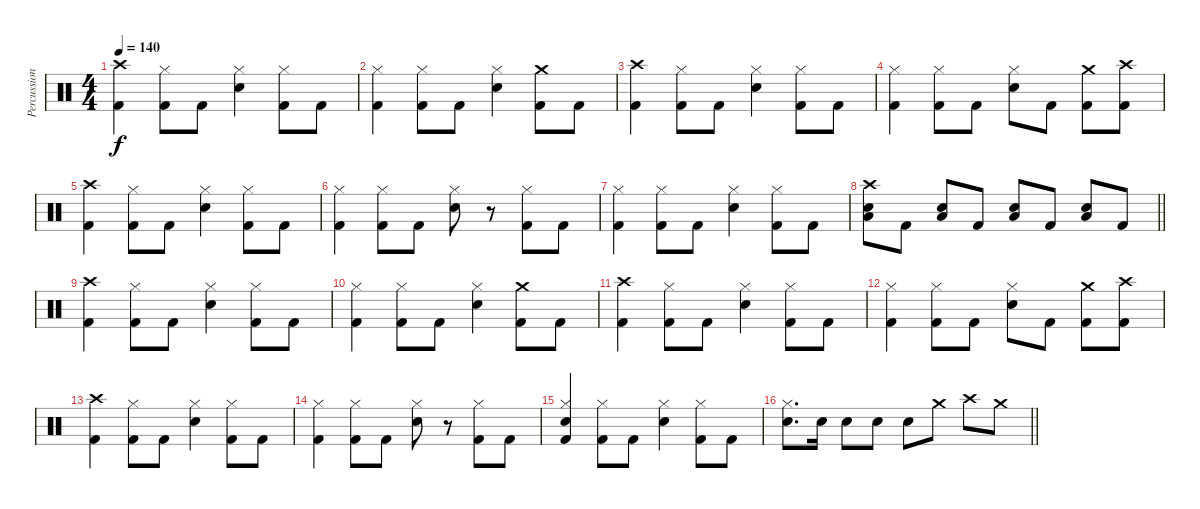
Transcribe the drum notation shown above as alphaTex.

\track ("Percussion (LP III)" "Percussion") {instrument percussion}
\staff {score}
\articulation defaults
\ts (4 4)
\section ("" " ")
\tempo 140
\clef neutral
\ks c
("Crash high (hit)" "Kick (hit) 2").4{dy f} ("Hi-Hat (closed)" "Kick (hit) 2").8 "Kick (hit) 2".8 ("Hi-Hat (closed)" "Snare (hit) 2").4 ("Hi-Hat (closed)" "Kick (hit) 2").8 "Kick (hit) 2".8 |
("Hi-Hat (closed)" "Kick (hit) 2").4 ("Hi-Hat (closed)" "Kick (hit) 2").8 "Kick (hit) 2".8 ("Hi-Hat (closed)" "Snare (hit) 2").4 ("Crash medium (hit)" "Kick (hit) 2").8 "Kick (hit) 2".8 |
("Crash high (hit)" "Kick (hit) 2").4 ("Hi-Hat (closed)" "Kick (hit) 2").8 "Kick (hit) 2".8 ("Hi-Hat (closed)" "Snare (hit) 2").4 ("Hi-Hat (closed)" "Kick (hit) 2").8 "Kick (hit) 2".8 |
("Hi-Hat (closed)" "Kick (hit) 2").4 ("Hi-Hat (closed)" "Kick (hit) 2").8 "Kick (hit) 2".8 ("Hi-Hat (closed)" "Snare (hit) 2").8 "Kick (hit) 2".8 ("Crash medium (hit)" "Kick (hit) 2").8 ("Crash high (hit)" "Kick (hit) 2").8 |
("Crash high (hit)" "Kick (hit) 2").4 ("Hi-Hat (closed)" "Kick (hit) 2").8 "Kick (hit) 2".8 ("Hi-Hat (closed)" "Snare (hit) 2").4 ("Hi-Hat (closed)" "Kick (hit) 2").8 "Kick (hit) 2".8 |
("Hi-Hat (closed)" "Kick (hit) 2").4 ("Hi-Hat (closed)" "Kick (hit) 2").8 "Kick (hit) 2".8 ("Hi-Hat (closed)" "Snare (hit) 2").8 r.8 ("Hi-Hat (closed)" "Kick (hit) 2").8 "Kick (hit) 2".8 |
("Hi-Hat (closed)" "Kick (hit) 2").4 ("Hi-Hat (closed)" "Kick (hit) 2").8 "Kick (hit) 2".8 ("Hi-Hat (closed)" "Snare (hit) 2").4 ("Hi-Hat (closed)" "Kick (hit) 2").8 "Kick (hit) 2".8 |
\barLineRight lightlight
("Crash high (hit)" "Snare (hit) 2" "Low Tom (hit)").8 "Kick (hit) 2".8 ("Snare (hit) 2" "Low Tom (hit)").8 "Kick (hit) 2".8 ("Snare (hit) 2" "Low Tom (hit)").8 "Kick (hit) 2".8 ("Snare (hit) 2" "Low Tom (hit)").8 "Kick (hit) 2".8 |
\section ("" " ")
("Crash high (hit)" "Kick (hit) 2").4 ("Hi-Hat (closed)" "Kick (hit) 2").8 "Kick (hit) 2".8 ("Hi-Hat (closed)" "Snare (hit) 2").4 ("Hi-Hat (closed)" "Kick (hit) 2").8 "Kick (hit) 2".8 |
("Hi-Hat (closed)" "Kick (hit) 2").4 ("Hi-Hat (closed)" "Kick (hit) 2").8 "Kick (hit) 2".8 ("Hi-Hat (closed)" "Snare (hit) 2").4 ("Crash medium (hit)" "Kick (hit) 2").8 "Kick (hit) 2".8 |
("Crash high (hit)" "Kick (hit) 2").4 ("Hi-Hat (closed)" "Kick (hit) 2").8 "Kick (hit) 2".8 ("Hi-Hat (closed)" "Snare (hit) 2").4 ("Hi-Hat (closed)" "Kick (hit) 2").8 "Kick (hit) 2".8 |
("Hi-Hat (closed)" "Kick (hit) 2").4 ("Hi-Hat (closed)" "Kick (hit) 2").8 "Kick (hit) 2".8 ("Hi-Hat (closed)" "Snare (hit) 2").8 "Kick (hit) 2".8 ("Crash medium (hit)" "Kick (hit) 2").8 ("Crash high (hit)" "Kick (hit) 2").8 |
("Crash high (hit)" "Kick (hit) 2").4 ("Hi-Hat (closed)" "Kick (hit) 2").8 "Kick (hit) 2".8 ("Hi-Hat (closed)" "Snare (hit) 2").4 ("Hi-Hat (closed)" "Kick (hit) 2").8 "Kick (hit) 2".8 |
("Hi-Hat (closed)" "Kick (hit) 2").4 ("Hi-Hat (closed)" "Kick (hit) 2").8 "Kick (hit) 2".8 ("Hi-Hat (closed)" "Snare (hit) 2").8 r.8 ("Hi-Hat (closed)" "Kick (hit) 2").8 "Kick (hit) 2".8 |
("Hi-Hat (closed)" "Snare (hit) 2" "Kick (hit) 2").4 ("Hi-Hat (closed)" "Kick (hit) 2").8 "Kick (hit) 2".8 ("Hi-Hat (closed)" "Snare (hit) 2").4 ("Hi-Hat (closed)" "Kick (hit) 2").8 "Kick (hit) 2".8 |
\barLineRight lightlight
("Hi-Hat (closed)" "Snare (hit) 2").8{d} "Snare (hit) 2".16 "Snare (hit) 2".8 "Snare (hit) 2".8 "Snare (hit) 2".8 "Crash medium (hit)".8 "Crash high (hit)".8 "Crash medium (hit)".8
